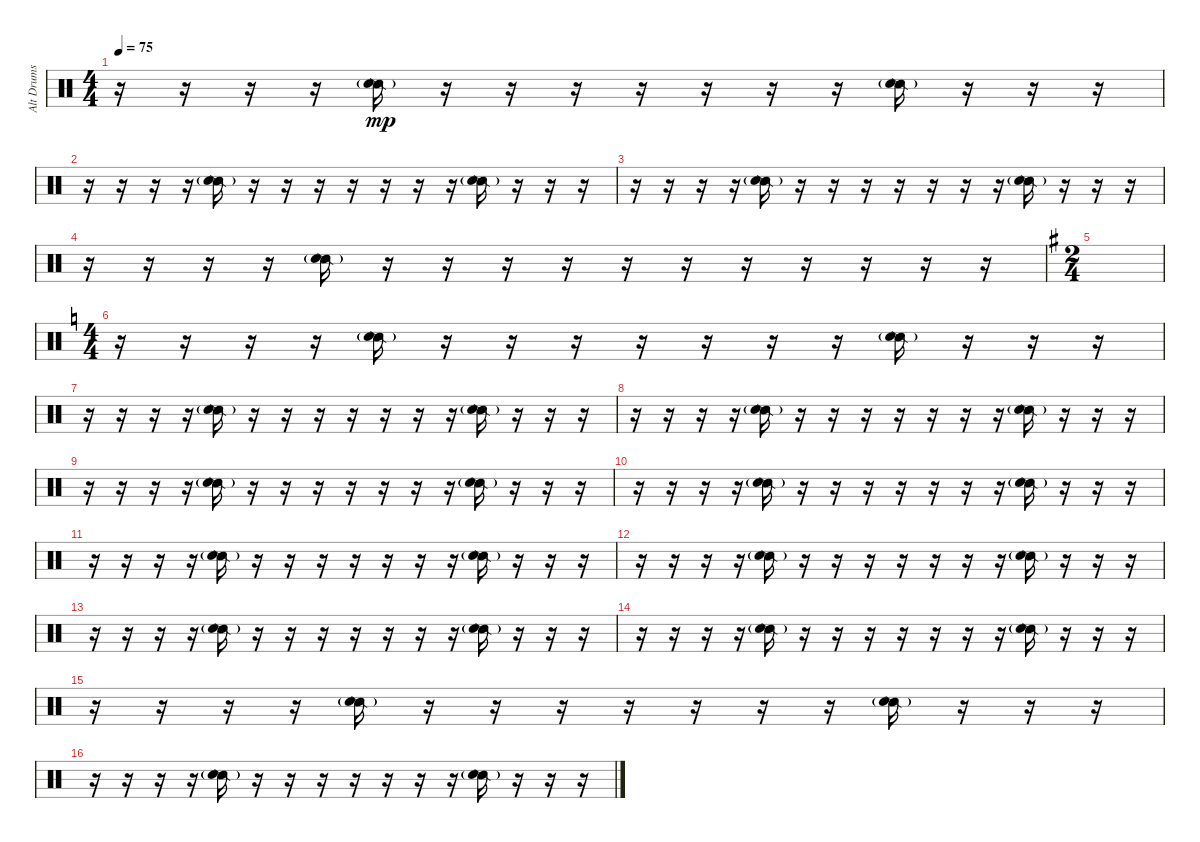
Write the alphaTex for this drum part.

\track ("Alt Drums" "Alt Drums") {instrument percussion}
\staff {score}
\articulation defaults
\ts (4 4)
\tempo 75
\clef neutral
\ks c
r.16{dy mp volume 10 balance 5} r.16 r.16 r.16 ("Snare (side stick) 2" "Hand Clap (hit)"{g}).16 r.16 r.16 r.16 r.16 r.16 r.16 r.16 ("Snare (side stick) 2" "Hand Clap (hit)"{g}).16 r.16 r.16 r.16 |
r.16 r.16 r.16 r.16 ("Snare (side stick) 2" "Hand Clap (hit)"{g}).16 r.16 r.16 r.16 r.16 r.16 r.16 r.16 ("Snare (side stick) 2" "Hand Clap (hit)"{g}).16 r.16 r.16 r.16 |
r.16 r.16 r.16 r.16 ("Snare (side stick) 2" "Hand Clap (hit)"{g}).16 r.16 r.16 r.16 r.16 r.16 r.16 r.16 ("Snare (side stick) 2" "Hand Clap (hit)"{g}).16 r.16 r.16 r.16 |
r.16 r.16 r.16 r.16 ("Snare (side stick) 2" "Hand Clap (hit)"{g}).16 r.16 r.16 r.16 r.16 r.16 r.16 r.16 r.16 r.16 r.16 r.16 |
\ts (2 4)
\ks g
|
\ts (4 4)
\ks c
r.16{volume 16 balance 8} r.16 r.16 r.16 ("Snare (side stick) 2" "Hand Clap (hit)"{g}).16 r.16 r.16 r.16 r.16 r.16 r.16 r.16 ("Snare (side stick) 2" "Hand Clap (hit)"{g}).16 r.16 r.16 r.16 |
r.16 r.16 r.16 r.16 ("Snare (side stick) 2" "Hand Clap (hit)"{g}).16 r.16 r.16 r.16 r.16 r.16 r.16 r.16 ("Snare (side stick) 2" "Hand Clap (hit)"{g}).16 r.16 r.16 r.16 |
r.16 r.16 r.16 r.16 ("Snare (side stick) 2" "Hand Clap (hit)"{g}).16 r.16 r.16 r.16 r.16 r.16 r.16 r.16 ("Snare (side stick) 2" "Hand Clap (hit)"{g}).16 r.16 r.16 r.16 |
r.16 r.16 r.16 r.16 ("Snare (side stick) 2" "Hand Clap (hit)"{g}).16 r.16 r.16 r.16 r.16 r.16 r.16 r.16 ("Snare (side stick) 2" "Hand Clap (hit)"{g}).16 r.16 r.16 r.16 |
r.16 r.16 r.16 r.16 ("Snare (side stick) 2" "Hand Clap (hit)"{g}).16 r.16 r.16 r.16 r.16 r.16 r.16 r.16 ("Snare (side stick) 2" "Hand Clap (hit)"{g}).16 r.16 r.16 r.16 |
r.16 r.16 r.16 r.16 ("Snare (side stick) 2" "Hand Clap (hit)"{g}).16 r.16 r.16 r.16 r.16 r.16 r.16 r.16 ("Snare (side stick) 2" "Hand Clap (hit)"{g}).16 r.16 r.16 r.16 |
r.16 r.16 r.16 r.16 ("Snare (side stick) 2" "Hand Clap (hit)"{g}).16 r.16 r.16 r.16 r.16 r.16 r.16 r.16 ("Snare (side stick) 2" "Hand Clap (hit)"{g}).16 r.16 r.16 r.16 |
r.16 r.16 r.16 r.16 ("Snare (side stick) 2" "Hand Clap (hit)"{g}).16 r.16 r.16 r.16 r.16 r.16 r.16 r.16 ("Snare (side stick) 2" "Hand Clap (hit)"{g}).16 r.16 r.16 r.16 |
r.16 r.16 r.16 r.16 ("Snare (side stick) 2" "Hand Clap (hit)"{g}).16 r.16 r.16 r.16 r.16 r.16 r.16 r.16 ("Snare (side stick) 2" "Hand Clap (hit)"{g}).16 r.16 r.16 r.16 |
r.16 r.16 r.16 r.16 ("Snare (side stick) 2" "Hand Clap (hit)"{g}).16 r.16 r.16 r.16 r.16 r.16 r.16 r.16 ("Snare (side stick) 2" "Hand Clap (hit)"{g}).16 r.16 r.16 r.16 |
r.16 r.16 r.16 r.16 ("Snare (side stick) 2" "Hand Clap (hit)"{g}).16 r.16 r.16 r.16 r.16 r.16 r.16 r.16 ("Snare (side stick) 2" "Hand Clap (hit)"{g}).16 r.16 r.16 r.16
